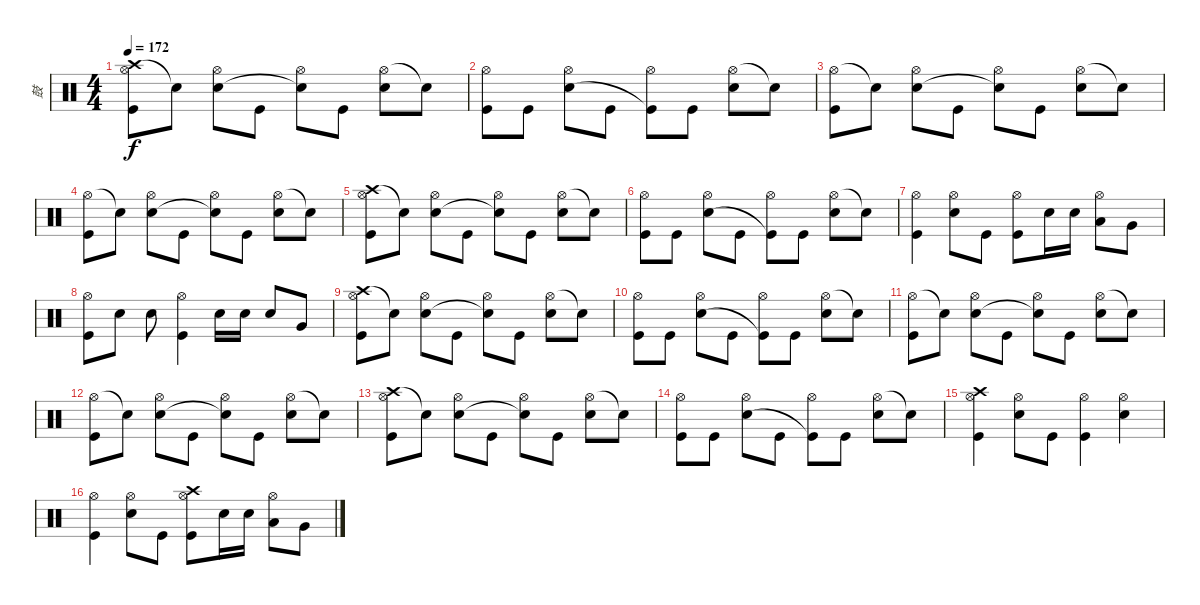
\track ("鼓" "鼓") {instrument percussion}
\staff {score}
\articulation defaults
\ts (4 4)
\tempo 172
\clef neutral
\ks c
("Crash high (hit)" "Hi-Hat (open)" "Kick (hit)").8{dy f} "Snare (hit) 2"{t}.8 ("Hi-Hat (open)" "Snare (hit) 2").8 "Kick (hit)".8 ("Hi-Hat (open)" "Snare (hit) 2"{t}).8 "Kick (hit)".8 ("Hi-Hat (open)" "Snare (hit) 2").8 "Snare (hit)"{t}.8 |
("Hi-Hat (open)" "Kick (hit)").8 "Kick (hit)".8 ("Hi-Hat (open)" "Snare (hit) 2").8 "Kick (hit)".8 ("Hi-Hat (open)" "Kick (hit)"{t}).8 "Kick (hit)".8 ("Hi-Hat (open)" "Snare (hit) 2").8 "Snare (hit)"{t}.8 |
("Hi-Hat (open)" "Kick (hit)").8 "Snare (hit) 2"{t}.8 ("Hi-Hat (open)" "Snare (hit) 2").8 "Kick (hit)".8 ("Hi-Hat (open)" "Snare (hit) 2"{t}).8 "Kick (hit)".8 ("Hi-Hat (open)" "Snare (hit) 2").8 "Snare (hit)"{t}.8 |
("Hi-Hat (open)" "Kick (hit)").8 "Snare (hit) 2"{t}.8 ("Hi-Hat (open)" "Snare (hit) 2").8 "Kick (hit)".8 ("Hi-Hat (open)" "Snare (hit) 2"{t}).8 "Kick (hit)".8 ("Hi-Hat (open)" "Snare (hit) 2").8 "Snare (hit)"{t}.8 |
("Crash high (hit)" "Hi-Hat (open)" "Kick (hit)").8 "Snare (hit) 2"{t}.8 ("Hi-Hat (open)" "Snare (hit) 2").8 "Kick (hit)".8 ("Hi-Hat (open)" "Snare (hit) 2"{t}).8 "Kick (hit)".8 ("Hi-Hat (open)" "Snare (hit) 2").8 "Snare (hit)"{t}.8 |
("Hi-Hat (open)" "Kick (hit)").8 "Kick (hit)".8 ("Hi-Hat (open)" "Snare (hit) 2").8 "Kick (hit)".8 ("Hi-Hat (open)" "Kick (hit)"{t}).8 "Kick (hit)".8 ("Hi-Hat (open)" "Snare (hit) 2").8 "Snare (hit)"{t}.8 |
("Hi-Hat (open)" "Kick (hit)").4 ("Hi-Hat (open)" "Snare (hit) 2").8 "Kick (hit)".8 ("Hi-Hat (open)" "Kick (hit)").8 "Snare (hit) 2".16 "Snare (hit) 2".16 ("Hi-Hat (open)" "Low Tom (hit)").8 "Very Low Tom (hit)".8 |
("Hi-Hat (open)" "Kick (hit)").8 "Snare (hit) 2".8 "Snare (hit) 2".8 ("Hi-Hat (open)" "Kick (hit)").4 "Snare (hit) 2".16 "Snare (hit) 2".16 "Snare (hit) 2".8 "Very Low Tom (hit)".8 |
("Crash high (hit)" "Hi-Hat (open)" "Kick (hit)").8 "Snare (hit) 2"{t}.8 ("Hi-Hat (open)" "Snare (hit) 2").8 "Kick (hit)".8 ("Hi-Hat (open)" "Snare (hit) 2"{t}).8 "Kick (hit)".8 ("Hi-Hat (open)" "Snare (hit) 2").8 "Snare (hit)"{t}.8 |
("Hi-Hat (open)" "Kick (hit)").8 "Kick (hit)".8 ("Hi-Hat (open)" "Snare (hit) 2").8 "Kick (hit)".8 ("Hi-Hat (open)" "Kick (hit)"{t}).8 "Kick (hit)".8 ("Hi-Hat (open)" "Snare (hit) 2").8 "Snare (hit)"{t}.8 |
("Hi-Hat (open)" "Kick (hit)").8 "Snare (hit) 2"{t}.8 ("Hi-Hat (open)" "Snare (hit) 2").8 "Kick (hit)".8 ("Hi-Hat (open)" "Snare (hit) 2"{t}).8 "Kick (hit)".8 ("Hi-Hat (open)" "Snare (hit) 2").8 "Snare (hit)"{t}.8 |
("Hi-Hat (open)" "Kick (hit)").8 "Snare (hit) 2"{t}.8 ("Hi-Hat (open)" "Snare (hit) 2").8 "Kick (hit)".8 ("Hi-Hat (open)" "Snare (hit) 2"{t}).8 "Kick (hit)".8 ("Hi-Hat (open)" "Snare (hit) 2").8 "Snare (hit)"{t}.8 |
("Crash high (hit)" "Hi-Hat (open)" "Kick (hit)").8 "Snare (hit) 2"{t}.8 ("Hi-Hat (open)" "Snare (hit) 2").8 "Kick (hit)".8 ("Hi-Hat (open)" "Snare (hit) 2"{t}).8 "Kick (hit)".8 ("Hi-Hat (open)" "Snare (hit) 2").8 "Snare (hit)"{t}.8 |
("Hi-Hat (open)" "Kick (hit)").8 "Kick (hit)".8 ("Hi-Hat (open)" "Snare (hit) 2").8 "Kick (hit)".8 ("Hi-Hat (open)" "Kick (hit)"{t}).8 "Kick (hit)".8 ("Hi-Hat (open)" "Snare (hit) 2").8 "Snare (hit)"{t}.8 |
("Crash high (hit)" "Hi-Hat (open)" "Kick (hit)").4 ("Hi-Hat (open)" "Snare (hit) 2").8 "Kick (hit)".8 ("Hi-Hat (open)" "Kick (hit)").4 ("Hi-Hat (open)" "Snare (hit) 2").4 |
("Hi-Hat (open)" "Kick (hit)").4 ("Hi-Hat (open)" "Snare (hit) 2").8 "Kick (hit)".8 ("Crash high (hit)" "Hi-Hat (open)" "Kick (hit)").8 "Snare (hit) 2".16 "Snare (hit) 2".16 ("Hi-Hat (open)" "Low Tom (hit)").8 "Very Low Tom (hit)".8
